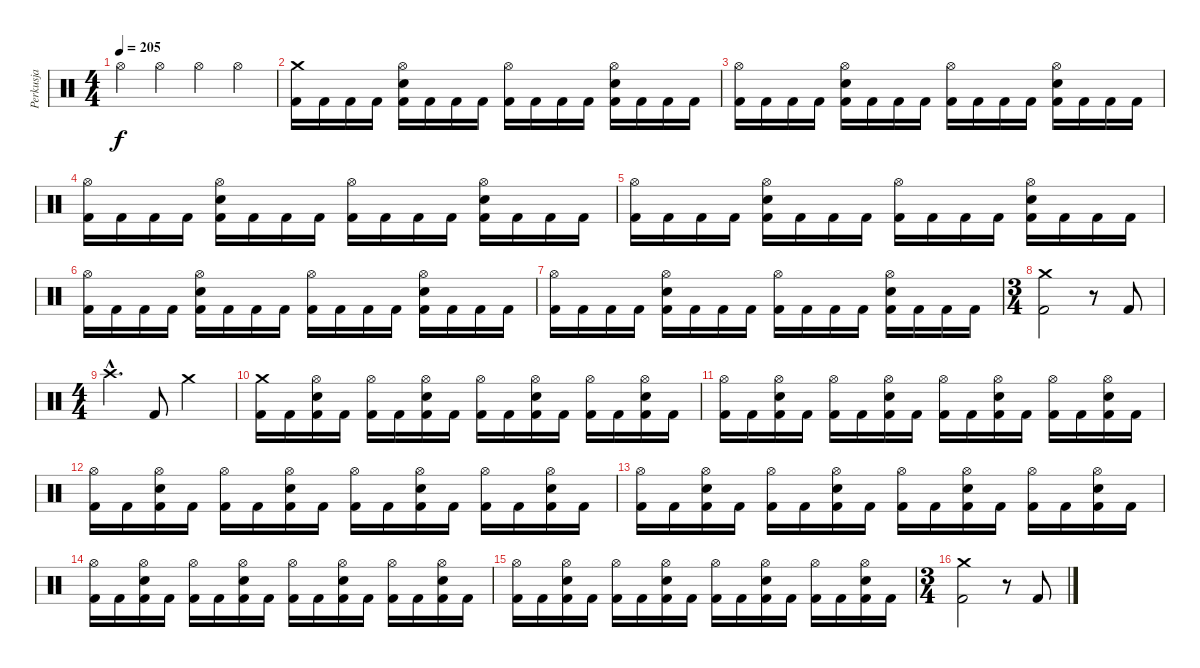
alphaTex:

\track ("Perkusja" "Perkusja") {instrument percussion}
\staff {score}
\articulation defaults
\ts (4 4)
\tempo 205
\clef neutral
\ks c "Hi-Hat (open)".4{dy f} "Hi-Hat (open)".4 "Hi-Hat (open)".4 "Hi-Hat (open)".4
|
("Crash medium (hit)" "Kick (hit) 2").16 "Kick (hit) 2".16 "Kick (hit) 2".16 "Kick (hit) 2".16 ("Hi-Hat (open)" "Snare (hit) 2" "Kick (hit) 2").16 "Kick (hit) 2".16 "Kick (hit) 2".16 "Kick (hit) 2".16 ("Hi-Hat (open)" "Kick (hit) 2").16 "Kick (hit) 2".16 "Kick (hit) 2".16 "Kick (hit) 2".16 ("Hi-Hat (open)" "Snare (hit) 2" "Kick (hit) 2").16 "Kick (hit) 2".16 "Kick (hit) 2".16 "Kick (hit) 2".16 |
("Hi-Hat (open)" "Kick (hit) 2").16 "Kick (hit) 2".16 "Kick (hit) 2".16 "Kick (hit) 2".16 ("Hi-Hat (open)" "Snare (hit) 2" "Kick (hit) 2").16 "Kick (hit) 2".16 "Kick (hit) 2".16 "Kick (hit) 2".16 ("Hi-Hat (open)" "Kick (hit) 2").16 "Kick (hit) 2".16 "Kick (hit) 2".16 "Kick (hit) 2".16 ("Hi-Hat (open)" "Snare (hit) 2" "Kick (hit) 2").16 "Kick (hit) 2".16 "Kick (hit) 2".16 "Kick (hit) 2".16 |
("Hi-Hat (open)" "Kick (hit) 2").16 "Kick (hit) 2".16 "Kick (hit) 2".16 "Kick (hit) 2".16 ("Hi-Hat (open)" "Snare (hit) 2" "Kick (hit) 2").16 "Kick (hit) 2".16 "Kick (hit) 2".16 "Kick (hit) 2".16 ("Hi-Hat (open)" "Kick (hit) 2").16 "Kick (hit) 2".16 "Kick (hit) 2".16 "Kick (hit) 2".16 ("Hi-Hat (open)" "Snare (hit) 2" "Kick (hit) 2").16 "Kick (hit) 2".16 "Kick (hit) 2".16 "Kick (hit) 2".16 |
("Hi-Hat (open)" "Kick (hit) 2").16 "Kick (hit) 2".16 "Kick (hit) 2".16 "Kick (hit) 2".16 ("Hi-Hat (open)" "Snare (hit) 2" "Kick (hit) 2").16 "Kick (hit) 2".16 "Kick (hit) 2".16 "Kick (hit) 2".16 ("Hi-Hat (open)" "Kick (hit) 2").16 "Kick (hit) 2".16 "Kick (hit) 2".16 "Kick (hit) 2".16 ("Hi-Hat (open)" "Snare (hit) 2" "Kick (hit) 2").16 "Kick (hit) 2".16 "Kick (hit) 2".16 "Kick (hit) 2".16 |
("Hi-Hat (open)" "Kick (hit) 2").16 "Kick (hit) 2".16 "Kick (hit) 2".16 "Kick (hit) 2".16 ("Hi-Hat (open)" "Snare (hit) 2" "Kick (hit) 2").16 "Kick (hit) 2".16 "Kick (hit) 2".16 "Kick (hit) 2".16 ("Hi-Hat (open)" "Kick (hit) 2").16 "Kick (hit) 2".16 "Kick (hit) 2".16 "Kick (hit) 2".16 ("Hi-Hat (open)" "Snare (hit) 2" "Kick (hit) 2").16 "Kick (hit) 2".16 "Kick (hit) 2".16 "Kick (hit) 2".16 |
("Hi-Hat (open)" "Kick (hit) 2").16 "Kick (hit) 2".16 "Kick (hit) 2".16 "Kick (hit) 2".16 ("Hi-Hat (open)" "Snare (hit) 2" "Kick (hit) 2").16 "Kick (hit) 2".16 "Kick (hit) 2".16 "Kick (hit) 2".16 ("Hi-Hat (open)" "Kick (hit) 2").16 "Kick (hit) 2".16 "Kick (hit) 2".16 "Kick (hit) 2".16 ("Hi-Hat (open)" "Snare (hit) 2" "Kick (hit) 2").16 "Kick (hit) 2".16 "Kick (hit) 2".16 "Kick (hit) 2".16 |
\ts (3 4)
("Crash medium (hit)" "Kick (hit) 2").2 r.8 "Kick (hit) 2".8 |
\ts (4 4)
"Crash high (hit)"{hac}.4{d} "Kick (hit) 2".8 "Crash medium (hit)".2 |
("Crash medium (hit)" "Kick (hit) 2").16 "Kick (hit) 2".16 ("Hi-Hat (open)" "Snare (hit) 2" "Kick (hit) 2").16 "Kick (hit) 2".16 ("Hi-Hat (open)" "Kick (hit) 2").16 "Kick (hit) 2".16 ("Hi-Hat (open)" "Snare (hit) 2" "Kick (hit) 2").16 "Kick (hit) 2".16 ("Hi-Hat (open)" "Kick (hit) 2").16 "Kick (hit) 2".16 ("Hi-Hat (open)" "Snare (hit) 2" "Kick (hit) 2").16 "Kick (hit) 2".16 ("Hi-Hat (open)" "Kick (hit) 2").16 "Kick (hit) 2".16 ("Hi-Hat (open)" "Snare (hit) 2" "Kick (hit) 2").16 "Kick (hit) 2".16 |
("Hi-Hat (open)" "Kick (hit) 2").16 "Kick (hit) 2".16 ("Hi-Hat (open)" "Snare (hit) 2" "Kick (hit) 2").16 "Kick (hit) 2".16 ("Hi-Hat (open)" "Kick (hit) 2").16 "Kick (hit) 2".16 ("Hi-Hat (open)" "Snare (hit) 2" "Kick (hit) 2").16 "Kick (hit) 2".16 ("Hi-Hat (open)" "Kick (hit) 2").16 "Kick (hit) 2".16 ("Hi-Hat (open)" "Snare (hit) 2" "Kick (hit) 2").16 "Kick (hit) 2".16 ("Hi-Hat (open)" "Kick (hit) 2").16 "Kick (hit) 2".16 ("Hi-Hat (open)" "Snare (hit) 2" "Kick (hit) 2").16 "Kick (hit) 2".16 |
("Hi-Hat (open)" "Kick (hit) 2").16 "Kick (hit) 2".16 ("Hi-Hat (open)" "Snare (hit) 2" "Kick (hit) 2").16 "Kick (hit) 2".16 ("Hi-Hat (open)" "Kick (hit) 2").16 "Kick (hit) 2".16 ("Hi-Hat (open)" "Snare (hit) 2" "Kick (hit) 2").16 "Kick (hit) 2".16 ("Hi-Hat (open)" "Kick (hit) 2").16 "Kick (hit) 2".16 ("Hi-Hat (open)" "Snare (hit) 2" "Kick (hit) 2").16 "Kick (hit) 2".16 ("Hi-Hat (open)" "Kick (hit) 2").16 "Kick (hit) 2".16 ("Hi-Hat (open)" "Snare (hit) 2" "Kick (hit) 2").16 "Kick (hit) 2".16 |
("Hi-Hat (open)" "Kick (hit) 2").16 "Kick (hit) 2".16 ("Hi-Hat (open)" "Snare (hit) 2" "Kick (hit) 2").16 "Kick (hit) 2".16 ("Hi-Hat (open)" "Kick (hit) 2").16 "Kick (hit) 2".16 ("Hi-Hat (open)" "Snare (hit) 2" "Kick (hit) 2").16 "Kick (hit) 2".16 ("Hi-Hat (open)" "Kick (hit) 2").16 "Kick (hit) 2".16 ("Hi-Hat (open)" "Snare (hit) 2" "Kick (hit) 2").16 "Kick (hit) 2".16 ("Hi-Hat (open)" "Kick (hit) 2").16 "Kick (hit) 2".16 ("Hi-Hat (open)" "Snare (hit) 2" "Kick (hit) 2").16 "Kick (hit) 2".16 |
("Hi-Hat (open)" "Kick (hit) 2").16 "Kick (hit) 2".16 ("Hi-Hat (open)" "Snare (hit) 2" "Kick (hit) 2").16 "Kick (hit) 2".16 ("Hi-Hat (open)" "Kick (hit) 2").16 "Kick (hit) 2".16 ("Hi-Hat (open)" "Snare (hit) 2" "Kick (hit) 2").16 "Kick (hit) 2".16 ("Hi-Hat (open)" "Kick (hit) 2").16 "Kick (hit) 2".16 ("Hi-Hat (open)" "Snare (hit) 2" "Kick (hit) 2").16 "Kick (hit) 2".16 ("Hi-Hat (open)" "Kick (hit) 2").16 "Kick (hit) 2".16 ("Hi-Hat (open)" "Snare (hit) 2" "Kick (hit) 2").16 "Kick (hit) 2".16 |
("Hi-Hat (open)" "Kick (hit) 2").16 "Kick (hit) 2".16 ("Hi-Hat (open)" "Snare (hit) 2" "Kick (hit) 2").16 "Kick (hit) 2".16 ("Hi-Hat (open)" "Kick (hit) 2").16 "Kick (hit) 2".16 ("Hi-Hat (open)" "Snare (hit) 2" "Kick (hit) 2").16 "Kick (hit) 2".16 ("Hi-Hat (open)" "Kick (hit) 2").16 "Kick (hit) 2".16 ("Hi-Hat (open)" "Snare (hit) 2" "Kick (hit) 2").16 "Kick (hit) 2".16 ("Hi-Hat (open)" "Kick (hit) 2").16 "Kick (hit) 2".16 ("Hi-Hat (open)" "Snare (hit) 2" "Kick (hit) 2").16 "Kick (hit) 2".16 |
\ts (3 4)
("Crash medium (hit)" "Kick (hit) 2").2 r.8 "Kick (hit) 2".8
